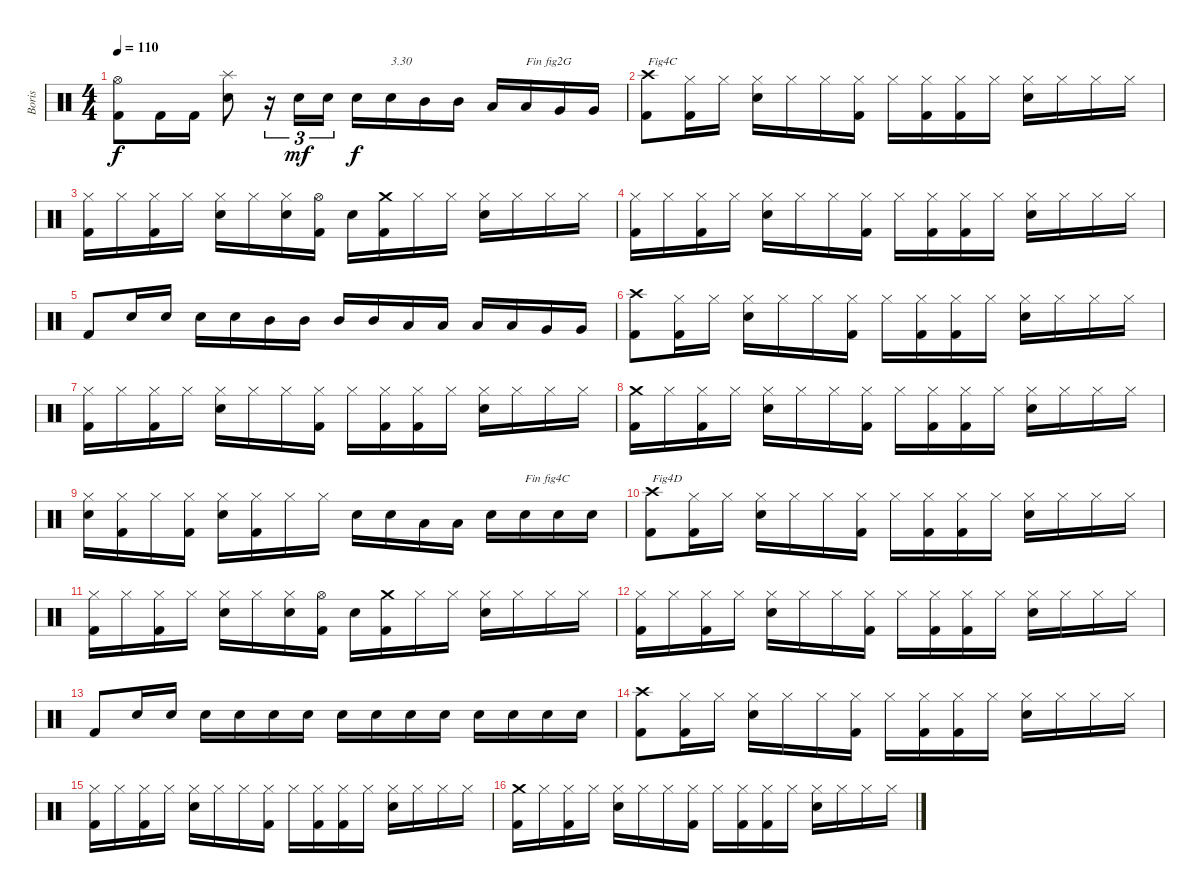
\track ("Boris" "Boris") {instrument percussion}
\staff {score}
\articulation defaults
\ts (4 4)
\tempo 110
\clef neutral
\ks c
("Kick (hit) 2" "Hi-Hat (open)").8{dy f} "Kick (hit) 2".16 "Kick (hit) 2".16 ("Electric Snare (hit)" "Splash (hit)").8 r.16{tu (3 2)} "Electric Snare (hit)".16{tu (3 2) dy mf} "Electric Snare (hit)".16{tu (3 2)} "Electric Snare (hit)".16{dy f} "Electric Snare (hit)".16{txt "3.30"} "Mid Tom (hit)".16 "Mid Tom (hit)".16 "Low Tom (hit)".16 "Low Tom (hit)".16{txt "Fin fig2G"} "Very Low Tom (hit)".16 "Very Low Tom (hit)".16 |
("Kick (hit) 2" "Crash high (hit)").8{txt "Fig4C"} ("Kick (hit) 2" "Hi-Hat (closed)").16 "Hi-Hat (closed)".16 ("Electric Snare (hit)" "Hi-Hat (closed)").16 "Hi-Hat (closed)".16 "Hi-Hat (closed)".16 ("Kick (hit) 2" "Hi-Hat (closed)").16 "Hi-Hat (closed)".16 ("Kick (hit) 2" "Hi-Hat (closed)").16 ("Kick (hit) 2" "Hi-Hat (closed)").16 "Hi-Hat (closed)".16 ("Electric Snare (hit)" "Hi-Hat (closed)").16 "Hi-Hat (closed)".16 "Hi-Hat (closed)".16 "Hi-Hat (closed)".16 |
("Kick (hit) 2" "Hi-Hat (closed)").16 "Hi-Hat (closed)".16 ("Kick (hit) 2" "Hi-Hat (closed)").16 "Hi-Hat (closed)".16 ("Electric Snare (hit)" "Hi-Hat (closed)").16 "Hi-Hat (closed)".16 ("Electric Snare (hit)" "Hi-Hat (closed)").16 ("Kick (hit) 2" "Hi-Hat (open)").16 "Electric Snare (hit)".16 ("Kick (hit) 2" "Crash medium (hit)").16 "Hi-Hat (closed)".16 "Hi-Hat (closed)".16 ("Electric Snare (hit)" "Hi-Hat (closed)").16 "Hi-Hat (closed)".16 "Hi-Hat (closed)".16 "Hi-Hat (closed)".16 |
("Kick (hit) 2" "Hi-Hat (closed)").16 "Hi-Hat (closed)".16 ("Kick (hit) 2" "Hi-Hat (closed)").16 "Hi-Hat (closed)".16 ("Electric Snare (hit)" "Hi-Hat (closed)").16 "Hi-Hat (closed)".16 "Hi-Hat (closed)".16 ("Kick (hit) 2" "Hi-Hat (closed)").16 "Hi-Hat (closed)".16 ("Kick (hit) 2" "Hi-Hat (closed)").16 ("Kick (hit) 2" "Hi-Hat (closed)").16 "Hi-Hat (closed)".16 ("Electric Snare (hit)" "Hi-Hat (closed)").16 "Hi-Hat (closed)".16 "Hi-Hat (closed)".16 "Hi-Hat (closed)".16 |
"Kick (hit) 2".8 "Electric Snare (hit)".16 "Electric Snare (hit)".16 "Electric Snare (hit)".16 "Electric Snare (hit)".16 "Mid Tom (hit)".16 "Mid Tom (hit)".16 "Mid Tom (hit)".16 "Mid Tom (hit)".16 "Low Tom (hit)".16 "Low Tom (hit)".16 "Low Tom (hit)".16 "Low Tom (hit)".16 "Very Low Tom (hit)".16 "Very Low Tom (hit)".16 |
("Kick (hit) 2" "Crash high (hit)").8 ("Kick (hit) 2" "Hi-Hat (closed)").16 "Hi-Hat (closed)".16 ("Electric Snare (hit)" "Hi-Hat (closed)").16 "Hi-Hat (closed)".16 "Hi-Hat (closed)".16 ("Kick (hit) 2" "Hi-Hat (closed)").16 "Hi-Hat (closed)".16 ("Kick (hit) 2" "Hi-Hat (closed)").16 ("Kick (hit) 2" "Hi-Hat (closed)").16 "Hi-Hat (closed)".16 ("Electric Snare (hit)" "Hi-Hat (closed)").16 "Hi-Hat (closed)".16 "Hi-Hat (closed)".16 "Hi-Hat (closed)".16 |
("Kick (hit) 2" "Hi-Hat (closed)").16 "Hi-Hat (closed)".16 ("Kick (hit) 2" "Hi-Hat (closed)").16 "Hi-Hat (closed)".16 ("Electric Snare (hit)" "Hi-Hat (closed)").16 "Hi-Hat (closed)".16 "Hi-Hat (closed)".16 ("Kick (hit) 2" "Hi-Hat (closed)").16 "Hi-Hat (closed)".16 ("Kick (hit) 2" "Hi-Hat (closed)").16 ("Kick (hit) 2" "Hi-Hat (closed)").16 "Hi-Hat (closed)".16 ("Electric Snare (hit)" "Hi-Hat (closed)").16 "Hi-Hat (closed)".16 "Hi-Hat (closed)".16 "Hi-Hat (closed)".16 |
("Kick (hit) 2" "Crash medium (hit)").16 "Hi-Hat (closed)".16 ("Kick (hit) 2" "Hi-Hat (closed)").16 "Hi-Hat (closed)".16 ("Electric Snare (hit)" "Hi-Hat (closed)").16 "Hi-Hat (closed)".16 "Hi-Hat (closed)".16 ("Kick (hit) 2" "Hi-Hat (closed)").16 "Hi-Hat (closed)".16 ("Kick (hit) 2" "Hi-Hat (closed)").16 ("Kick (hit) 2" "Hi-Hat (closed)").16 "Hi-Hat (closed)".16 ("Electric Snare (hit)" "Hi-Hat (closed)").16 "Hi-Hat (closed)".16 "Hi-Hat (closed)".16 "Hi-Hat (closed)".16 |
("Electric Snare (hit)" "Hi-Hat (closed)").16 ("Kick (hit) 2" "Hi-Hat (closed)").16 "Hi-Hat (closed)".16 ("Kick (hit) 2" "Hi-Hat (closed)").16 ("Electric Snare (hit)" "Hi-Hat (closed)").16 ("Kick (hit) 2" "Hi-Hat (closed)").16 "Hi-Hat (closed)".16 "Hi-Hat (closed)".16 "Electric Snare (hit)".16 "Electric Snare (hit)".16 "Low Tom (hit)".16 "Low Tom (hit)".16 "Electric Snare (hit)".16 "Electric Snare (hit)".16{txt "Fin fig4C"} "Electric Snare (hit)".16 "Electric Snare (hit)".16 |
("Kick (hit) 2" "Crash high (hit)").8{txt "Fig4D"} ("Kick (hit) 2" "Hi-Hat (closed)").16 "Hi-Hat (closed)".16 ("Electric Snare (hit)" "Hi-Hat (closed)").16 "Hi-Hat (closed)".16 "Hi-Hat (closed)".16 ("Kick (hit) 2" "Hi-Hat (closed)").16 "Hi-Hat (closed)".16 ("Kick (hit) 2" "Hi-Hat (closed)").16 ("Kick (hit) 2" "Hi-Hat (closed)").16 "Hi-Hat (closed)".16 ("Electric Snare (hit)" "Hi-Hat (closed)").16 "Hi-Hat (closed)".16 "Hi-Hat (closed)".16 "Hi-Hat (closed)".16 |
("Kick (hit) 2" "Hi-Hat (closed)").16 "Hi-Hat (closed)".16 ("Kick (hit) 2" "Hi-Hat (closed)").16 "Hi-Hat (closed)".16 ("Electric Snare (hit)" "Hi-Hat (closed)").16 "Hi-Hat (closed)".16 ("Electric Snare (hit)" "Hi-Hat (closed)").16 ("Kick (hit) 2" "Hi-Hat (open)").16 "Electric Snare (hit)".16 ("Kick (hit) 2" "Crash medium (hit)").16 "Hi-Hat (closed)".16 "Hi-Hat (closed)".16 ("Electric Snare (hit)" "Hi-Hat (closed)").16 "Hi-Hat (closed)".16 "Hi-Hat (closed)".16 "Hi-Hat (closed)".16 |
("Kick (hit) 2" "Hi-Hat (closed)").16 "Hi-Hat (closed)".16 ("Kick (hit) 2" "Hi-Hat (closed)").16 "Hi-Hat (closed)".16 ("Electric Snare (hit)" "Hi-Hat (closed)").16 "Hi-Hat (closed)".16 "Hi-Hat (closed)".16 ("Kick (hit) 2" "Hi-Hat (closed)").16 "Hi-Hat (closed)".16 ("Kick (hit) 2" "Hi-Hat (closed)").16 ("Kick (hit) 2" "Hi-Hat (closed)").16 "Hi-Hat (closed)".16 ("Electric Snare (hit)" "Hi-Hat (closed)").16 "Hi-Hat (closed)".16 "Hi-Hat (closed)".16 "Hi-Hat (closed)".16 |
"Kick (hit) 2".8 "Electric Snare (hit)".16 "Electric Snare (hit)".16 "Electric Snare (hit)".16 "Electric Snare (hit)".16 "Electric Snare (hit)".16 "Electric Snare (hit)".16 "Electric Snare (hit)".16 "Electric Snare (hit)".16 "Electric Snare (hit)".16 "Electric Snare (hit)".16 "Electric Snare (hit)".16 "Electric Snare (hit)".16 "Electric Snare (hit)".16 "Electric Snare (hit)".16 |
("Kick (hit) 2" "Crash high (hit)").8 ("Kick (hit) 2" "Hi-Hat (closed)").16 "Hi-Hat (closed)".16 ("Electric Snare (hit)" "Hi-Hat (closed)").16 "Hi-Hat (closed)".16 "Hi-Hat (closed)".16 ("Kick (hit) 2" "Hi-Hat (closed)").16 "Hi-Hat (closed)".16 ("Kick (hit) 2" "Hi-Hat (closed)").16 ("Kick (hit) 2" "Hi-Hat (closed)").16 "Hi-Hat (closed)".16 ("Electric Snare (hit)" "Hi-Hat (closed)").16 "Hi-Hat (closed)".16 "Hi-Hat (closed)".16 "Hi-Hat (closed)".16 |
("Kick (hit) 2" "Hi-Hat (closed)").16 "Hi-Hat (closed)".16 ("Kick (hit) 2" "Hi-Hat (closed)").16 "Hi-Hat (closed)".16 ("Electric Snare (hit)" "Hi-Hat (closed)").16 "Hi-Hat (closed)".16 "Hi-Hat (closed)".16 ("Kick (hit) 2" "Hi-Hat (closed)").16 "Hi-Hat (closed)".16 ("Kick (hit) 2" "Hi-Hat (closed)").16 ("Kick (hit) 2" "Hi-Hat (closed)").16 "Hi-Hat (closed)".16 ("Electric Snare (hit)" "Hi-Hat (closed)").16 "Hi-Hat (closed)".16 "Hi-Hat (closed)".16 "Hi-Hat (closed)".16 |
("Kick (hit) 2" "Crash medium (hit)").16 "Hi-Hat (closed)".16 ("Kick (hit) 2" "Hi-Hat (closed)").16 "Hi-Hat (closed)".16 ("Electric Snare (hit)" "Hi-Hat (closed)").16 "Hi-Hat (closed)".16 "Hi-Hat (closed)".16 ("Kick (hit) 2" "Hi-Hat (closed)").16 "Hi-Hat (closed)".16 ("Kick (hit) 2" "Hi-Hat (closed)").16 ("Kick (hit) 2" "Hi-Hat (closed)").16 "Hi-Hat (closed)".16 ("Electric Snare (hit)" "Hi-Hat (closed)").16 "Hi-Hat (closed)".16 "Hi-Hat (closed)".16 "Hi-Hat (closed)".16
